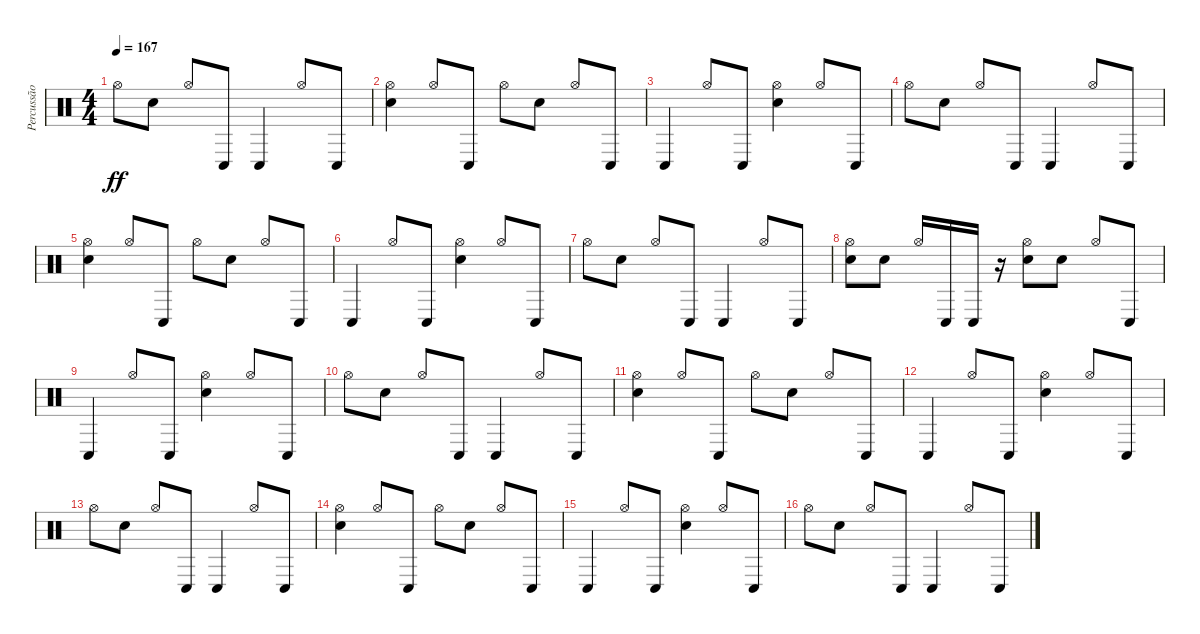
\track ("Percussão" "Percussão") {instrument percussion}
\staff {score}
\articulation defaults
\ts (4 4)
\tempo 167
\clef neutral
\ks c "Hi-Hat (open)".8{dy ff} "Electric Snare (hit)".8 "Hi-Hat (open)".8 "Conga low (hit)".8 "Conga low (hit)".4 "Hi-Hat (open)".8 "Conga low (hit)".8
|
("Electric Snare (hit)" "Hi-Hat (open)").4 "Hi-Hat (open)".8 "Conga low (hit)".8 "Hi-Hat (open)".8 "Electric Snare (hit)".8 "Hi-Hat (open)".8 "Conga low (hit)".8 |
"Conga low (hit)".4 "Hi-Hat (open)".8 "Conga low (hit)".8 ("Electric Snare (hit)" "Hi-Hat (open)").4 "Hi-Hat (open)".8 "Conga low (hit)".8 |
"Hi-Hat (open)".8 "Electric Snare (hit)".8 "Hi-Hat (open)".8 "Conga low (hit)".8 "Conga low (hit)".4 "Hi-Hat (open)".8 "Conga low (hit)".8 |
("Electric Snare (hit)" "Hi-Hat (open)").4 "Hi-Hat (open)".8 "Conga low (hit)".8 "Hi-Hat (open)".8 "Electric Snare (hit)".8 "Hi-Hat (open)".8 "Conga low (hit)".8 |
"Conga low (hit)".4 "Hi-Hat (open)".8 "Conga low (hit)".8 ("Electric Snare (hit)" "Hi-Hat (open)").4 "Hi-Hat (open)".8 "Conga low (hit)".8 |
"Hi-Hat (open)".8 "Electric Snare (hit)".8 "Hi-Hat (open)".8 "Conga low (hit)".8 "Conga low (hit)".4 "Hi-Hat (open)".8 "Conga low (hit)".8 |
("Electric Snare (hit)" "Hi-Hat (open)").8 "Electric Snare (hit)".8 "Hi-Hat (open)".16 "Conga low (hit)".16 "Conga low (hit)".16 r.16 ("Electric Snare (hit)" "Hi-Hat (open)").8 "Electric Snare (hit)".8 "Hi-Hat (open)".8 "Conga low (hit)".8 |
"Conga low (hit)".4 "Hi-Hat (open)".8 "Conga low (hit)".8 ("Electric Snare (hit)" "Hi-Hat (open)").4 "Hi-Hat (open)".8 "Conga low (hit)".8 |
"Hi-Hat (open)".8 "Electric Snare (hit)".8 "Hi-Hat (open)".8 "Conga low (hit)".8 "Conga low (hit)".4 "Hi-Hat (open)".8 "Conga low (hit)".8 |
("Electric Snare (hit)" "Hi-Hat (open)").4 "Hi-Hat (open)".8 "Conga low (hit)".8 "Hi-Hat (open)".8 "Electric Snare (hit)".8 "Hi-Hat (open)".8 "Conga low (hit)".8 |
"Conga low (hit)".4 "Hi-Hat (open)".8 "Conga low (hit)".8 ("Electric Snare (hit)" "Hi-Hat (open)").4 "Hi-Hat (open)".8 "Conga low (hit)".8 |
"Hi-Hat (open)".8 "Electric Snare (hit)".8 "Hi-Hat (open)".8 "Conga low (hit)".8 "Conga low (hit)".4 "Hi-Hat (open)".8 "Conga low (hit)".8 |
("Electric Snare (hit)" "Hi-Hat (open)").4 "Hi-Hat (open)".8 "Conga low (hit)".8 "Hi-Hat (open)".8 "Electric Snare (hit)".8 "Hi-Hat (open)".8 "Conga low (hit)".8 |
"Conga low (hit)".4 "Hi-Hat (open)".8 "Conga low (hit)".8 ("Electric Snare (hit)" "Hi-Hat (open)").4 "Hi-Hat (open)".8 "Conga low (hit)".8 |
"Hi-Hat (open)".8 "Electric Snare (hit)".8 "Hi-Hat (open)".8 "Conga low (hit)".8 "Conga low (hit)".4 "Hi-Hat (open)".8 "Conga low (hit)".8
